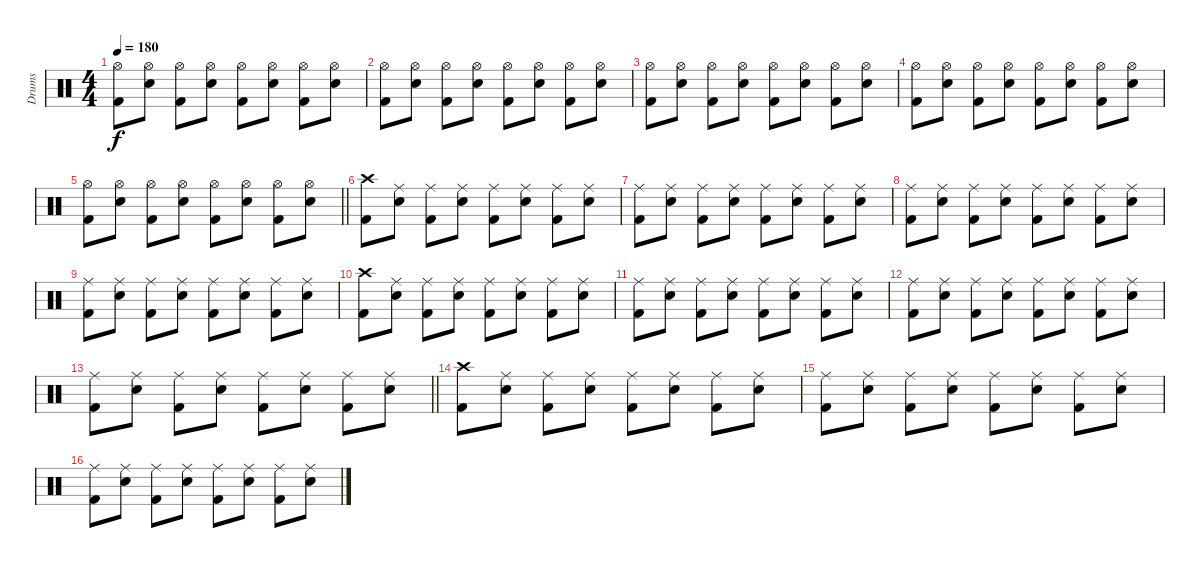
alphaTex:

\track ("Drums" "Drums") {instrument percussion}
\staff {score}
\articulation defaults
\ts (4 4)
\tempo 180
\clef neutral
\ks c
("Hi-Hat (open)" "Kick (hit) 2").8{dy f} ("Hi-Hat (open)" "Snare (hit) 2").8 ("Hi-Hat (open)" "Kick (hit) 2").8 ("Hi-Hat (open)" "Snare (hit) 2").8 ("Hi-Hat (open)" "Kick (hit) 2").8 ("Hi-Hat (open)" "Snare (hit) 2").8 ("Hi-Hat (open)" "Kick (hit) 2").8 ("Hi-Hat (open)" "Snare (hit) 2").8 |
("Hi-Hat (open)" "Kick (hit) 2").8 ("Hi-Hat (open)" "Snare (hit) 2").8 ("Hi-Hat (open)" "Kick (hit) 2").8 ("Hi-Hat (open)" "Snare (hit) 2").8 ("Hi-Hat (open)" "Kick (hit) 2").8 ("Hi-Hat (open)" "Snare (hit) 2").8 ("Hi-Hat (open)" "Kick (hit) 2").8 ("Hi-Hat (open)" "Snare (hit) 2").8 |
("Hi-Hat (open)" "Kick (hit) 2").8 ("Hi-Hat (open)" "Snare (hit) 2").8 ("Hi-Hat (open)" "Kick (hit) 2").8 ("Hi-Hat (open)" "Snare (hit) 2").8 ("Hi-Hat (open)" "Kick (hit) 2").8 ("Hi-Hat (open)" "Snare (hit) 2").8 ("Hi-Hat (open)" "Kick (hit) 2").8 ("Hi-Hat (open)" "Snare (hit) 2").8 |
("Hi-Hat (open)" "Kick (hit) 2").8 ("Hi-Hat (open)" "Snare (hit) 2").8 ("Hi-Hat (open)" "Kick (hit) 2").8 ("Hi-Hat (open)" "Snare (hit) 2").8 ("Hi-Hat (open)" "Kick (hit) 2").8 ("Hi-Hat (open)" "Snare (hit) 2").8 ("Hi-Hat (open)" "Kick (hit) 2").8 ("Hi-Hat (open)" "Snare (hit) 2").8 |
\barLineRight lightlight
("Hi-Hat (open)" "Kick (hit) 2").8 ("Hi-Hat (open)" "Snare (hit) 2").8 ("Hi-Hat (open)" "Kick (hit) 2").8 ("Hi-Hat (open)" "Snare (hit) 2").8 ("Hi-Hat (open)" "Kick (hit) 2").8 ("Hi-Hat (open)" "Snare (hit) 2").8 ("Hi-Hat (open)" "Kick (hit) 2").8 ("Hi-Hat (open)" "Snare (hit) 2").8 |
("Crash high (hit)" "Kick (hit) 2").8 ("Ride (middle)" "Snare (hit) 2").8 ("Ride (middle)" "Kick (hit) 2").8 ("Ride (middle)" "Snare (hit) 2").8 ("Ride (middle)" "Kick (hit) 2").8 ("Ride (middle)" "Snare (hit) 2").8 ("Ride (middle)" "Kick (hit) 2").8 ("Ride (middle)" "Snare (hit) 2").8 |
("Ride (middle)" "Kick (hit) 2").8 ("Ride (middle)" "Snare (hit) 2").8 ("Ride (middle)" "Kick (hit) 2").8 ("Ride (middle)" "Snare (hit) 2").8 ("Ride (middle)" "Kick (hit) 2").8 ("Ride (middle)" "Snare (hit) 2").8 ("Ride (middle)" "Kick (hit) 2").8 ("Ride (middle)" "Snare (hit) 2").8 |
("Ride (middle)" "Kick (hit) 2").8 ("Ride (middle)" "Snare (hit) 2").8 ("Ride (middle)" "Kick (hit) 2").8 ("Ride (middle)" "Snare (hit) 2").8 ("Ride (middle)" "Kick (hit) 2").8 ("Ride (middle)" "Snare (hit) 2").8 ("Ride (middle)" "Kick (hit) 2").8 ("Ride (middle)" "Snare (hit) 2").8 |
("Ride (middle)" "Kick (hit) 2").8 ("Ride (middle)" "Snare (hit) 2").8 ("Ride (middle)" "Kick (hit) 2").8 ("Ride (middle)" "Snare (hit) 2").8 ("Ride (middle)" "Kick (hit) 2").8 ("Ride (middle)" "Snare (hit) 2").8 ("Ride (middle)" "Kick (hit) 2").8 ("Ride (middle)" "Snare (hit) 2").8 |
("Crash high (hit)" "Kick (hit) 2").8 ("Ride (middle)" "Snare (hit) 2").8 ("Ride (middle)" "Kick (hit) 2").8 ("Ride (middle)" "Snare (hit) 2").8 ("Ride (middle)" "Kick (hit) 2").8 ("Ride (middle)" "Snare (hit) 2").8 ("Ride (middle)" "Kick (hit) 2").8 ("Ride (middle)" "Snare (hit) 2").8 |
("Ride (middle)" "Kick (hit) 2").8 ("Ride (middle)" "Snare (hit) 2").8 ("Ride (middle)" "Kick (hit) 2").8 ("Ride (middle)" "Snare (hit) 2").8 ("Ride (middle)" "Kick (hit) 2").8 ("Ride (middle)" "Snare (hit) 2").8 ("Ride (middle)" "Kick (hit) 2").8 ("Ride (middle)" "Snare (hit) 2").8 |
("Ride (middle)" "Kick (hit) 2").8 ("Ride (middle)" "Snare (hit) 2").8 ("Ride (middle)" "Kick (hit) 2").8 ("Ride (middle)" "Snare (hit) 2").8 ("Ride (middle)" "Kick (hit) 2").8 ("Ride (middle)" "Snare (hit) 2").8 ("Ride (middle)" "Kick (hit) 2").8 ("Ride (middle)" "Snare (hit) 2").8 |
\barLineRight lightlight
("Ride (middle)" "Kick (hit) 2").8 ("Ride (middle)" "Snare (hit) 2").8 ("Ride (middle)" "Kick (hit) 2").8 ("Ride (middle)" "Snare (hit) 2").8 ("Ride (middle)" "Kick (hit) 2").8 ("Ride (middle)" "Snare (hit) 2").8 ("Ride (middle)" "Kick (hit) 2").8 ("Ride (middle)" "Snare (hit) 2").8 |
("Crash high (hit)" "Kick (hit) 2").8 ("Ride (middle)" "Snare (hit) 2").8 ("Ride (middle)" "Kick (hit) 2").8 ("Ride (middle)" "Snare (hit) 2").8 ("Ride (middle)" "Kick (hit) 2").8 ("Ride (middle)" "Snare (hit) 2").8 ("Ride (middle)" "Kick (hit) 2").8 ("Ride (middle)" "Snare (hit) 2").8 |
("Ride (middle)" "Kick (hit) 2").8 ("Ride (middle)" "Snare (hit) 2").8 ("Ride (middle)" "Kick (hit) 2").8 ("Ride (middle)" "Snare (hit) 2").8 ("Ride (middle)" "Kick (hit) 2").8 ("Ride (middle)" "Snare (hit) 2").8 ("Ride (middle)" "Kick (hit) 2").8 ("Ride (middle)" "Snare (hit) 2").8 |
("Ride (middle)" "Kick (hit) 2").8 ("Ride (middle)" "Snare (hit) 2").8 ("Ride (middle)" "Kick (hit) 2").8 ("Ride (middle)" "Snare (hit) 2").8 ("Ride (middle)" "Kick (hit) 2").8 ("Ride (middle)" "Snare (hit) 2").8 ("Ride (middle)" "Kick (hit) 2").8 ("Ride (middle)" "Snare (hit) 2").8
